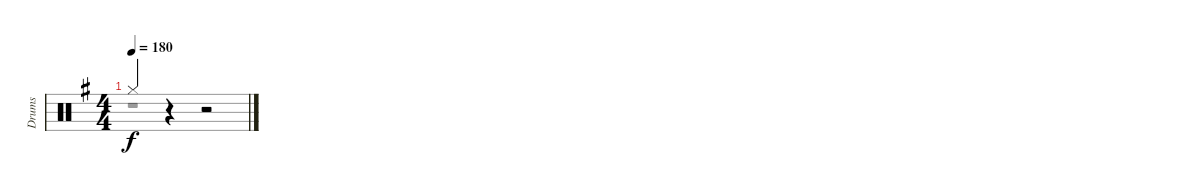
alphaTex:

\track ("Drums" "Drums") {instrument percussion}
\staff {score}
\articulation defaults
\voice
\ts (4 4)
\tempo 180
\clef neutral
\ks g "Hi-Hat (closed)".4{dy f}
r.4 r.2
\voice
\clef neutral
\ottava regular
\simile none
\ks g
r.1{dy fff}
